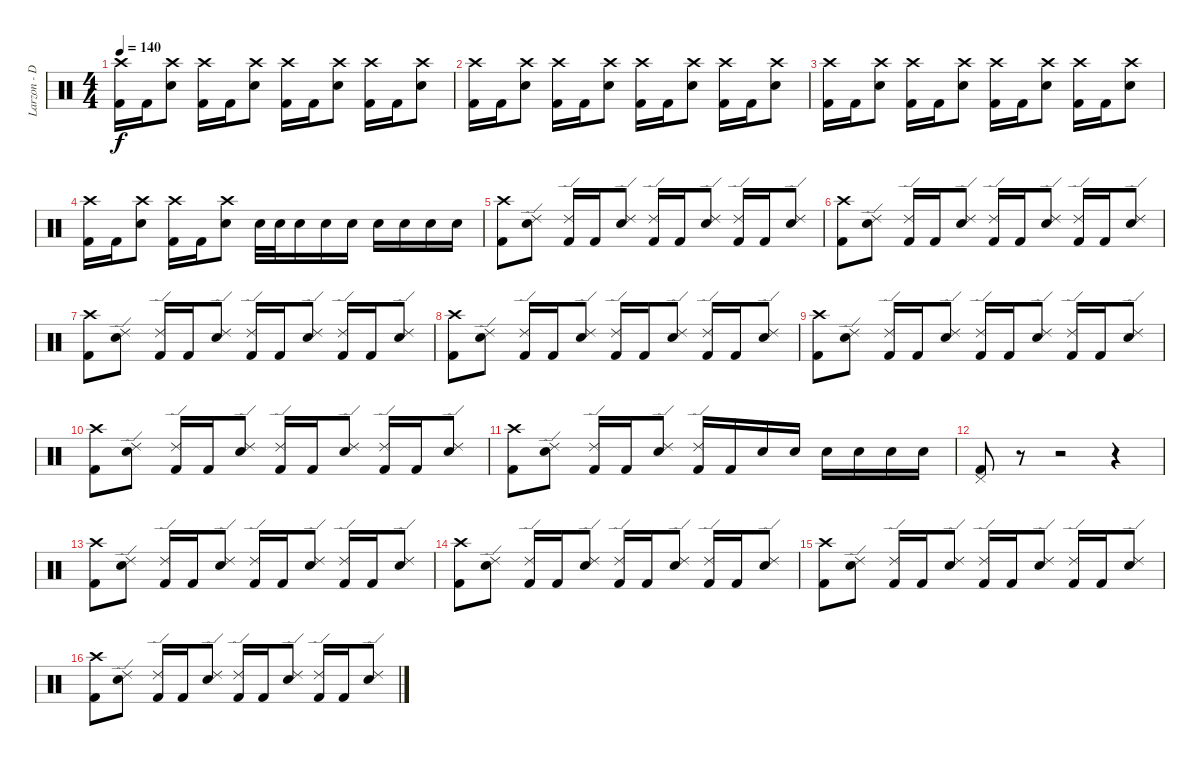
\track ("Larzon - Drums" "Larzon - D") {instrument percussion}
\staff {score}
\articulation defaults
\ts (4 4)
\tempo 140
\clef neutral
\ks c
("Crash high (hit)" "Kick (hit) 2").16{dy f} "Kick (hit) 2".16 ("Crash high (hit)" "Electric Snare (hit)").8 ("Crash high (hit)" "Kick (hit) 2").16 "Kick (hit) 2".16 ("Crash high (hit)" "Electric Snare (hit)").8 ("Crash high (hit)" "Kick (hit) 2").16 "Kick (hit) 2".16 ("Crash high (hit)" "Electric Snare (hit)").8 ("Crash high (hit)" "Kick (hit) 2").16 "Kick (hit) 2".16 ("Crash high (hit)" "Electric Snare (hit)").8 |
("Crash high (hit)" "Kick (hit) 2").16 "Kick (hit) 2".16 ("Crash high (hit)" "Electric Snare (hit)").8 ("Crash high (hit)" "Kick (hit) 2").16 "Kick (hit) 2".16 ("Crash high (hit)" "Electric Snare (hit)").8 ("Crash high (hit)" "Kick (hit) 2").16 "Kick (hit) 2".16 ("Crash high (hit)" "Electric Snare (hit)").8 ("Crash high (hit)" "Kick (hit) 2").16 "Kick (hit) 2".16 ("Crash high (hit)" "Electric Snare (hit)").8 |
("Crash high (hit)" "Kick (hit) 2").16 "Kick (hit) 2".16 ("Crash high (hit)" "Electric Snare (hit)").8 ("Crash high (hit)" "Kick (hit) 2").16 "Kick (hit) 2".16 ("Crash high (hit)" "Electric Snare (hit)").8 ("Crash high (hit)" "Kick (hit) 2").16 "Kick (hit) 2".16 ("Crash high (hit)" "Electric Snare (hit)").8 ("Crash high (hit)" "Kick (hit) 2").16 "Kick (hit) 2".16 ("Crash high (hit)" "Electric Snare (hit)").8 |
("Crash high (hit)" "Kick (hit) 2").16 "Kick (hit) 2".16 ("Crash high (hit)" "Electric Snare (hit)").8 ("Crash high (hit)" "Kick (hit) 2").16 "Kick (hit) 2".16 ("Crash high (hit)" "Electric Snare (hit)").8 "Electric Snare (hit)".32 "Electric Snare (hit)".32 "Electric Snare (hit)".16 "Electric Snare (hit)".16 "Electric Snare (hit)".16 "Electric Snare (hit)".16 "Electric Snare (hit)".16 "Electric Snare (hit)".16 "Electric Snare (hit)".16 |
("Crash high (hit)" "Kick (hit) 2").8 ("Ride (edge) 2" "Electric Snare (hit)").8 ("Ride (edge) 2" "Kick (hit) 2").16 "Kick (hit) 2".16 ("Ride (edge) 2" "Electric Snare (hit)").8 ("Ride (edge) 2" "Kick (hit) 2").16 "Kick (hit) 2".16 ("Ride (edge) 2" "Electric Snare (hit)").8 ("Ride (edge) 2" "Kick (hit) 2").16 "Kick (hit) 2".16 ("Ride (edge) 2" "Electric Snare (hit)").8 |
("Crash high (hit)" "Kick (hit) 2").8 ("Ride (edge) 2" "Electric Snare (hit)").8 ("Ride (edge) 2" "Kick (hit) 2").16 "Kick (hit) 2".16 ("Ride (edge) 2" "Electric Snare (hit)").8 ("Ride (edge) 2" "Kick (hit) 2").16 "Kick (hit) 2".16 ("Ride (edge) 2" "Electric Snare (hit)").8 ("Ride (edge) 2" "Kick (hit) 2").16 "Kick (hit) 2".16 ("Ride (edge) 2" "Electric Snare (hit)").8 |
("Crash high (hit)" "Kick (hit) 2").8 ("Ride (edge) 2" "Electric Snare (hit)").8 ("Ride (edge) 2" "Kick (hit) 2").16 "Kick (hit) 2".16 ("Ride (edge) 2" "Electric Snare (hit)").8 ("Ride (edge) 2" "Kick (hit) 2").16 "Kick (hit) 2".16 ("Ride (edge) 2" "Electric Snare (hit)").8 ("Ride (edge) 2" "Kick (hit) 2").16 "Kick (hit) 2".16 ("Ride (edge) 2" "Electric Snare (hit)").8 |
("Crash high (hit)" "Kick (hit) 2").8 ("Ride (edge) 2" "Electric Snare (hit)").8 ("Ride (edge) 2" "Kick (hit) 2").16 "Kick (hit) 2".16 ("Ride (edge) 2" "Electric Snare (hit)").8 ("Ride (edge) 2" "Kick (hit) 2").16 "Kick (hit) 2".16 ("Ride (edge) 2" "Electric Snare (hit)").8 ("Ride (edge) 2" "Kick (hit) 2").16 "Kick (hit) 2".16 ("Ride (edge) 2" "Electric Snare (hit)").8 |
("Crash high (hit)" "Kick (hit) 2").8 ("Ride (edge) 2" "Electric Snare (hit)").8 ("Ride (edge) 2" "Kick (hit) 2").16 "Kick (hit) 2".16 ("Ride (edge) 2" "Electric Snare (hit)").8 ("Ride (edge) 2" "Kick (hit) 2").16 "Kick (hit) 2".16 ("Ride (edge) 2" "Electric Snare (hit)").8 ("Ride (edge) 2" "Kick (hit) 2").16 "Kick (hit) 2".16 ("Ride (edge) 2" "Electric Snare (hit)").8 |
("Crash high (hit)" "Kick (hit) 2").8 ("Ride (edge) 2" "Electric Snare (hit)").8 ("Ride (edge) 2" "Kick (hit) 2").16 "Kick (hit) 2".16 ("Ride (edge) 2" "Electric Snare (hit)").8 ("Ride (edge) 2" "Kick (hit) 2").16 "Kick (hit) 2".16 ("Ride (edge) 2" "Electric Snare (hit)").8 ("Ride (edge) 2" "Kick (hit) 2").16 "Kick (hit) 2".16 ("Ride (edge) 2" "Electric Snare (hit)").8 |
("Crash high (hit)" "Kick (hit) 2").8 ("Ride (edge) 2" "Electric Snare (hit)").8 ("Ride (edge) 2" "Kick (hit) 2").16 "Kick (hit) 2".16 ("Ride (edge) 2" "Electric Snare (hit)").8 ("Ride (edge) 2" "Kick (hit) 2").16 "Kick (hit) 2".16 "Electric Snare (hit)".16 "Electric Snare (hit)".16 "Electric Snare (hit)".16 "Electric Snare (hit)".16 "Electric Snare (hit)".16 "Electric Snare (hit)".16 |
("Pedal Hi-Hat (hit)" "Kick (hit) 2").8 r.8 r.2 r.4 |
("Crash high (hit)" "Kick (hit) 2").8 ("Ride (edge) 2" "Electric Snare (hit)").8 ("Ride (edge) 2" "Kick (hit) 2").16 "Kick (hit) 2".16 ("Ride (edge) 2" "Electric Snare (hit)").8 ("Ride (edge) 2" "Kick (hit) 2").16 "Kick (hit) 2".16 ("Ride (edge) 2" "Electric Snare (hit)").8 ("Ride (edge) 2" "Kick (hit) 2").16 "Kick (hit) 2".16 ("Ride (edge) 2" "Electric Snare (hit)").8 |
("Crash high (hit)" "Kick (hit) 2").8 ("Ride (edge) 2" "Electric Snare (hit)").8 ("Ride (edge) 2" "Kick (hit) 2").16 "Kick (hit) 2".16 ("Ride (edge) 2" "Electric Snare (hit)").8 ("Ride (edge) 2" "Kick (hit) 2").16 "Kick (hit) 2".16 ("Ride (edge) 2" "Electric Snare (hit)").8 ("Ride (edge) 2" "Kick (hit) 2").16 "Kick (hit) 2".16 ("Ride (edge) 2" "Electric Snare (hit)").8 |
("Crash high (hit)" "Kick (hit) 2").8 ("Ride (edge) 2" "Electric Snare (hit)").8 ("Ride (edge) 2" "Kick (hit) 2").16 "Kick (hit) 2".16 ("Ride (edge) 2" "Electric Snare (hit)").8 ("Ride (edge) 2" "Kick (hit) 2").16 "Kick (hit) 2".16 ("Ride (edge) 2" "Electric Snare (hit)").8 ("Ride (edge) 2" "Kick (hit) 2").16 "Kick (hit) 2".16 ("Ride (edge) 2" "Electric Snare (hit)").8 |
("Crash high (hit)" "Kick (hit) 2").8 ("Ride (edge) 2" "Electric Snare (hit)").8 ("Ride (edge) 2" "Kick (hit) 2").16 "Kick (hit) 2".16 ("Ride (edge) 2" "Electric Snare (hit)").8 ("Ride (edge) 2" "Kick (hit) 2").16 "Kick (hit) 2".16 ("Ride (edge) 2" "Electric Snare (hit)").8 ("Ride (edge) 2" "Kick (hit) 2").16 "Kick (hit) 2".16 ("Ride (edge) 2" "Electric Snare (hit)").8
